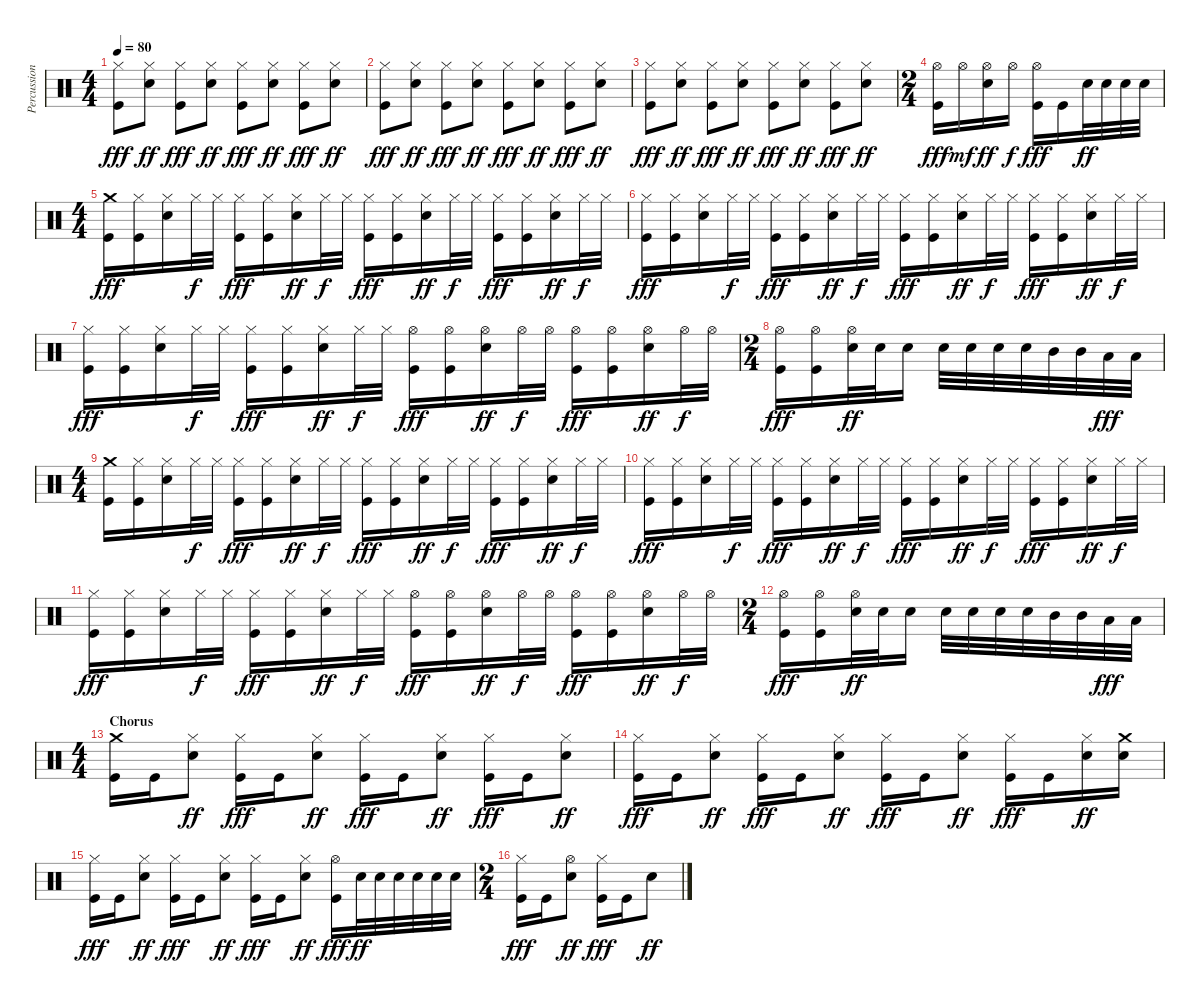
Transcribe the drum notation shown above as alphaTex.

\track ("Percussion" "Percussion") {instrument percussion}
\staff {score}
\articulation defaults
\ts (4 4)
\tempo 80
\clef neutral
\ks c
("Hi-Hat (closed)" "Kick (hit)").8{dy fff} ("Hi-Hat (closed)" "Snare (hit) 2").8{dy ff} ("Hi-Hat (closed)" "Kick (hit)").8{dy fff} ("Hi-Hat (closed)" "Snare (hit) 2").8{dy ff} ("Hi-Hat (closed)" "Kick (hit)").8{dy fff} ("Hi-Hat (closed)" "Snare (hit) 2").8{dy ff} ("Hi-Hat (closed)" "Kick (hit)").8{dy fff} ("Hi-Hat (closed)" "Snare (hit) 2").8{dy ff} |
("Hi-Hat (closed)" "Kick (hit)").8{dy fff} ("Hi-Hat (closed)" "Snare (hit) 2").8{dy ff} ("Hi-Hat (closed)" "Kick (hit)").8{dy fff} ("Hi-Hat (closed)" "Snare (hit) 2").8{dy ff} ("Hi-Hat (closed)" "Kick (hit)").8{dy fff} ("Hi-Hat (closed)" "Snare (hit) 2").8{dy ff} ("Hi-Hat (closed)" "Kick (hit)").8{dy fff} ("Hi-Hat (closed)" "Snare (hit) 2").8{dy ff} |
("Hi-Hat (closed)" "Kick (hit)").8{dy fff} ("Hi-Hat (closed)" "Snare (hit) 2").8{dy ff} ("Hi-Hat (closed)" "Kick (hit)").8{dy fff} ("Hi-Hat (closed)" "Snare (hit) 2").8{dy ff} ("Hi-Hat (closed)" "Kick (hit)").8{dy fff} ("Hi-Hat (closed)" "Snare (hit) 2").8{dy ff} ("Hi-Hat (closed)" "Kick (hit)").8{dy fff} ("Hi-Hat (closed)" "Snare (hit) 2").8{dy ff} |
\ts (2 4)
("Hi-Hat (open)" "Kick (hit)").16{dy fff} "Hi-Hat (open)".16{dy mf} ("Hi-Hat (open)" "Snare (hit) 2").16{dy ff} "Hi-Hat (open)".16{dy f} ("Hi-Hat (open)" "Kick (hit)").16{dy fff} "Kick (hit)".16 "Snare (hit) 2".32{dy ff} "Snare (hit) 2".32 "Snare (hit) 2".32 "Snare (hit) 2".32 |
\ts (4 4)
("Crash medium (hit)" "Kick (hit)").16{dy fff} ("Hi-Hat (closed)" "Kick (hit)").16 ("Hi-Hat (closed)" "Snare (hit) 2").16 "Hi-Hat (closed)".32{dy f} "Hi-Hat (closed)".32 ("Hi-Hat (closed)" "Kick (hit)").16{dy fff} ("Hi-Hat (closed)" "Kick (hit)").16 ("Hi-Hat (closed)" "Snare (hit) 2").16{dy ff} "Hi-Hat (closed)".32{dy f} "Hi-Hat (closed)".32 ("Hi-Hat (closed)" "Kick (hit)").16{dy fff} ("Hi-Hat (closed)" "Kick (hit)").16 ("Hi-Hat (closed)" "Snare (hit) 2").16{dy ff} "Hi-Hat (closed)".32{dy f} "Hi-Hat (closed)".32 ("Hi-Hat (closed)" "Kick (hit)").16{dy fff} ("Hi-Hat (closed)" "Kick (hit)").16 ("Hi-Hat (closed)" "Snare (hit) 2").16{dy ff} "Hi-Hat (closed)".32{dy f} "Hi-Hat (closed)".32 |
("Hi-Hat (closed)" "Kick (hit)").16{dy fff} ("Hi-Hat (closed)" "Kick (hit)").16 ("Hi-Hat (closed)" "Snare (hit) 2").16 "Hi-Hat (closed)".32{dy f} "Hi-Hat (closed)".32 ("Hi-Hat (closed)" "Kick (hit)").16{dy fff} ("Hi-Hat (closed)" "Kick (hit)").16 ("Hi-Hat (closed)" "Snare (hit) 2").16{dy ff} "Hi-Hat (closed)".32{dy f} "Hi-Hat (closed)".32 ("Hi-Hat (closed)" "Kick (hit)").16{dy fff} ("Hi-Hat (closed)" "Kick (hit)").16 ("Hi-Hat (closed)" "Snare (hit) 2").16{dy ff} "Hi-Hat (closed)".32{dy f} "Hi-Hat (closed)".32 ("Hi-Hat (closed)" "Kick (hit)").16{dy fff} ("Hi-Hat (closed)" "Kick (hit)").16 ("Hi-Hat (closed)" "Snare (hit) 2").16{dy ff} "Hi-Hat (closed)".32{dy f} "Hi-Hat (closed)".32 |
("Hi-Hat (closed)" "Kick (hit)").16{dy fff} ("Hi-Hat (closed)" "Kick (hit)").16 ("Hi-Hat (closed)" "Snare (hit) 2").16 "Hi-Hat (closed)".32{dy f} "Hi-Hat (closed)".32 ("Hi-Hat (closed)" "Kick (hit)").16{dy fff} ("Hi-Hat (closed)" "Kick (hit)").16 ("Hi-Hat (closed)" "Snare (hit) 2").16{dy ff} "Hi-Hat (closed)".32{dy f} "Hi-Hat (closed)".32 ("Hi-Hat (open)" "Kick (hit)").16{dy fff} ("Hi-Hat (open)" "Kick (hit)").16 ("Hi-Hat (open)" "Snare (hit) 2").16{dy ff} "Hi-Hat (open)".32{dy f} "Hi-Hat (open)".32 ("Hi-Hat (open)" "Kick (hit)").16{dy fff} ("Hi-Hat (open)" "Kick (hit)").16 ("Hi-Hat (open)" "Snare (hit) 2").16{dy ff} "Hi-Hat (open)".32{dy f} "Hi-Hat (open)".32 |
\ts (2 4)
("Hi-Hat (open)" "Kick (hit)").16{dy fff} ("Hi-Hat (open)" "Kick (hit)").16 ("Hi-Hat (open)" "Snare (hit) 2").32{dy ff} "Snare (hit) 2".32 "Snare (hit) 2".16 "Snare (hit) 2".32 "Snare (hit) 2".32 "Snare (hit) 2".32 "Snare (hit) 2".32 "Mid Tom (hit)".32 "Mid Tom (hit)".32 "Low Tom (hit)".32{dy fff} "Low Tom (hit)".32 |
\ts (4 4)
("Crash medium (hit)" "Kick (hit)").16 ("Hi-Hat (closed)" "Kick (hit)").16 ("Hi-Hat (closed)" "Snare (hit) 2").16 "Hi-Hat (closed)".32{dy f} "Hi-Hat (closed)".32 ("Hi-Hat (closed)" "Kick (hit)").16{dy fff} ("Hi-Hat (closed)" "Kick (hit)").16 ("Hi-Hat (closed)" "Snare (hit) 2").16{dy ff} "Hi-Hat (closed)".32{dy f} "Hi-Hat (closed)".32 ("Hi-Hat (closed)" "Kick (hit)").16{dy fff} ("Hi-Hat (closed)" "Kick (hit)").16 ("Hi-Hat (closed)" "Snare (hit) 2").16{dy ff} "Hi-Hat (closed)".32{dy f} "Hi-Hat (closed)".32 ("Hi-Hat (closed)" "Kick (hit)").16{dy fff} ("Hi-Hat (closed)" "Kick (hit)").16 ("Hi-Hat (closed)" "Snare (hit) 2").16{dy ff} "Hi-Hat (closed)".32{dy f} "Hi-Hat (closed)".32 |
("Hi-Hat (closed)" "Kick (hit)").16{dy fff} ("Hi-Hat (closed)" "Kick (hit)").16 ("Hi-Hat (closed)" "Snare (hit) 2").16 "Hi-Hat (closed)".32{dy f} "Hi-Hat (closed)".32 ("Hi-Hat (closed)" "Kick (hit)").16{dy fff} ("Hi-Hat (closed)" "Kick (hit)").16 ("Hi-Hat (closed)" "Snare (hit) 2").16{dy ff} "Hi-Hat (closed)".32{dy f} "Hi-Hat (closed)".32 ("Hi-Hat (closed)" "Kick (hit)").16{dy fff} ("Hi-Hat (closed)" "Kick (hit)").16 ("Hi-Hat (closed)" "Snare (hit) 2").16{dy ff} "Hi-Hat (closed)".32{dy f} "Hi-Hat (closed)".32 ("Hi-Hat (closed)" "Kick (hit)").16{dy fff} ("Hi-Hat (closed)" "Kick (hit)").16 ("Hi-Hat (closed)" "Snare (hit) 2").16{dy ff} "Hi-Hat (closed)".32{dy f} "Hi-Hat (closed)".32 |
("Hi-Hat (closed)" "Kick (hit)").16{dy fff} ("Hi-Hat (closed)" "Kick (hit)").16 ("Hi-Hat (closed)" "Snare (hit) 2").16 "Hi-Hat (closed)".32{dy f} "Hi-Hat (closed)".32 ("Hi-Hat (closed)" "Kick (hit)").16{dy fff} ("Hi-Hat (closed)" "Kick (hit)").16 ("Hi-Hat (closed)" "Snare (hit) 2").16{dy ff} "Hi-Hat (closed)".32{dy f} "Hi-Hat (closed)".32 ("Hi-Hat (open)" "Kick (hit)").16{dy fff} ("Hi-Hat (open)" "Kick (hit)").16 ("Hi-Hat (open)" "Snare (hit) 2").16{dy ff} "Hi-Hat (open)".32{dy f} "Hi-Hat (open)".32 ("Hi-Hat (open)" "Kick (hit)").16{dy fff} ("Hi-Hat (open)" "Kick (hit)").16 ("Hi-Hat (open)" "Snare (hit) 2").16{dy ff} "Hi-Hat (open)".32{dy f} "Hi-Hat (open)".32 |
\ts (2 4)
("Hi-Hat (open)" "Kick (hit)").16{dy fff} ("Hi-Hat (open)" "Kick (hit)").16 ("Hi-Hat (open)" "Snare (hit) 2").32{dy ff} "Snare (hit) 2".32 "Snare (hit) 2".16 "Snare (hit) 2".32 "Snare (hit) 2".32 "Snare (hit) 2".32 "Snare (hit) 2".32 "Mid Tom (hit)".32 "Mid Tom (hit)".32 "Low Tom (hit)".32{dy fff} "Low Tom (hit)".32 |
\ts (4 4)
\section ("" "Chorus")
("Crash medium (hit)" "Kick (hit)").16 "Kick (hit)".16 ("Hi-Hat (closed)" "Snare (hit) 2").8{dy ff} ("Hi-Hat (closed)" "Kick (hit)").16{dy fff} "Kick (hit)".16 ("Hi-Hat (closed)" "Snare (hit) 2").8{dy ff} ("Hi-Hat (closed)" "Kick (hit)").16{dy fff} "Kick (hit)".16 ("Hi-Hat (closed)" "Snare (hit) 2").8{dy ff} ("Hi-Hat (closed)" "Kick (hit)").16{dy fff} "Kick (hit)".16 ("Hi-Hat (closed)" "Snare (hit) 2").8{dy ff} |
("Hi-Hat (closed)" "Kick (hit)").16{dy fff} "Kick (hit)".16 ("Hi-Hat (closed)" "Snare (hit) 2").8{dy ff} ("Hi-Hat (closed)" "Kick (hit)").16{dy fff} "Kick (hit)".16 ("Hi-Hat (closed)" "Snare (hit) 2").8{dy ff} ("Hi-Hat (closed)" "Kick (hit)").16{dy fff} "Kick (hit)".16 ("Hi-Hat (closed)" "Snare (hit) 2").8{dy ff} ("Hi-Hat (closed)" "Kick (hit)").16{dy fff} "Kick (hit)".16 ("Hi-Hat (closed)" "Snare (hit) 2").16{dy ff} ("Crash medium (hit)" "Snare (hit) 2").16 |
("Hi-Hat (closed)" "Kick (hit)").16{dy fff} "Kick (hit)".16 ("Hi-Hat (closed)" "Snare (hit) 2").8{dy ff} ("Hi-Hat (closed)" "Kick (hit)").16{dy fff} "Kick (hit)".16 ("Hi-Hat (closed)" "Snare (hit) 2").8{dy ff} ("Hi-Hat (closed)" "Kick (hit)").16{dy fff} "Kick (hit)".16 ("Hi-Hat (closed)" "Snare (hit) 2").8{dy ff} ("Hi-Hat (open)" "Kick (hit)").16{dy fff} "Snare (hit) 2".32{dy ff} "Snare (hit) 2".32 "Snare (hit) 2".32 "Snare (hit) 2".32 "Snare (hit) 2".32 "Snare (hit) 2".32 |
\ts (2 4)
("Hi-Hat (closed)" "Kick (hit)").16{dy fff} "Kick (hit)".16 ("Hi-Hat (open)" "Snare (hit) 2").8{dy ff} ("Hi-Hat (closed)" "Kick (hit)").16{dy fff} "Kick (hit)".16 "Snare (hit) 2".8{dy ff}
